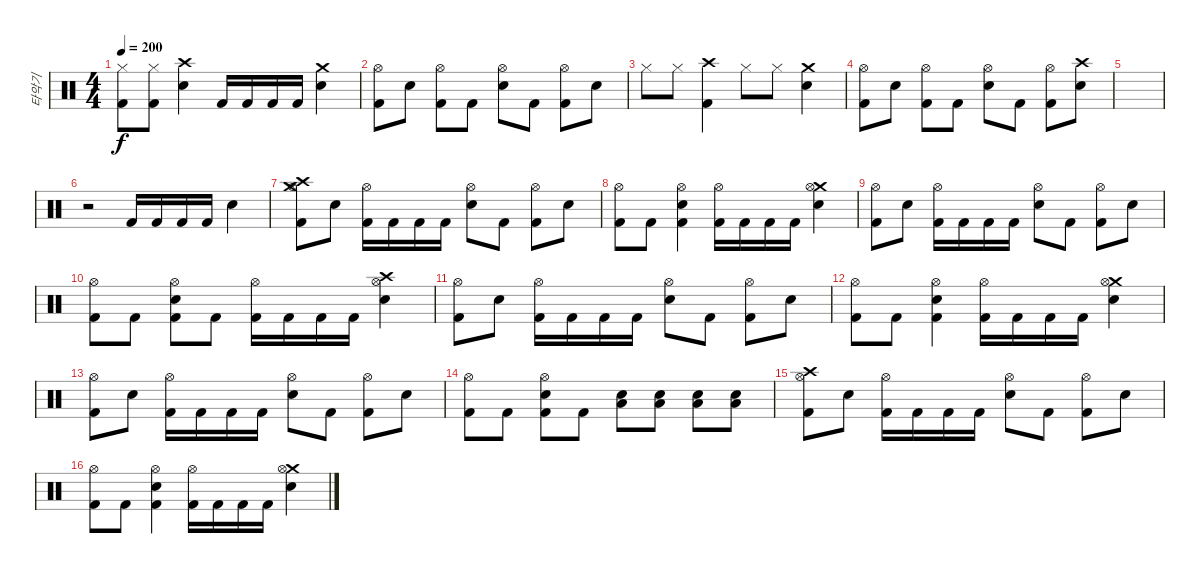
\track ("타악기" "타악기") {instrument percussion}
\staff {score}
\articulation defaults
\ts (4 4)
\tempo 200
\clef neutral
\ks c
("Hi-Hat (closed)" "Kick (hit) 2").8{dy f} ("Hi-Hat (closed)" "Kick (hit) 2").8 ("Crash high (hit)" "Snare (hit) 2").4 "Kick (hit) 2".16 "Kick (hit) 2".16 "Kick (hit) 2".16 "Kick (hit) 2".16 ("Crash medium (hit)" "Snare (hit) 2").4 |
("Hi-Hat (open)" "Kick (hit) 2").8 "Snare (hit) 2".8 ("Hi-Hat (open)" "Kick (hit) 2").8 "Kick (hit) 2".8 ("Hi-Hat (open)" "Snare (hit) 2").8 "Kick (hit) 2".8 ("Hi-Hat (open)" "Kick (hit) 2").8 "Snare (hit) 2".8 |
"Hi-Hat (closed)".8 "Hi-Hat (closed)".8 ("Crash high (hit)" "Kick (hit) 2").4 "Hi-Hat (closed)".8 "Hi-Hat (closed)".8 ("Crash medium (hit)" "Snare (hit) 2").4 |
("Hi-Hat (open)" "Kick (hit) 2").8 "Snare (hit) 2".8 ("Hi-Hat (open)" "Kick (hit) 2").8 "Kick (hit) 2".8 ("Hi-Hat (open)" "Snare (hit) 2").8 "Kick (hit) 2".8 ("Hi-Hat (open)" "Kick (hit) 2").8 ("Crash high (hit)" "Snare (hit) 2").8 |
|
r.2 "Kick (hit) 2".16 "Kick (hit) 2".16 "Kick (hit) 2".16 "Kick (hit) 2".16 "Snare (hit) 2".4 |
("Crash high (hit)" "Crash medium (hit)" "Hi-Hat (open)" "Kick (hit) 2").8 "Snare (hit) 2".8 ("Hi-Hat (open)" "Kick (hit) 2").16 "Kick (hit) 2".16 "Kick (hit) 2".16 "Kick (hit) 2".16 ("Hi-Hat (open)" "Snare (hit) 2").8 "Kick (hit) 2".8 ("Hi-Hat (open)" "Kick (hit) 2").8 "Snare (hit) 2".8 |
("Hi-Hat (open)" "Kick (hit) 2").8 "Kick (hit) 2".8 ("Hi-Hat (open)" "Snare (hit) 2" "Kick (hit) 2").4 ("Hi-Hat (open)" "Kick (hit) 2").16 "Kick (hit) 2".16 "Kick (hit) 2".16 "Kick (hit) 2".16 ("Crash medium (hit)" "Hi-Hat (open)" "Snare (hit) 2").4 |
("Hi-Hat (open)" "Kick (hit) 2").8 "Snare (hit) 2".8 ("Hi-Hat (open)" "Kick (hit) 2").16 "Kick (hit) 2".16 "Kick (hit) 2".16 "Kick (hit) 2".16 ("Hi-Hat (open)" "Snare (hit) 2").8 "Kick (hit) 2".8 ("Hi-Hat (open)" "Kick (hit) 2").8 "Snare (hit) 2".8 |
("Hi-Hat (open)" "Kick (hit) 2").8 "Kick (hit) 2".8 ("Hi-Hat (open)" "Snare (hit) 2" "Kick (hit) 2").8 "Kick (hit) 2".8 ("Hi-Hat (open)" "Kick (hit) 2").16 "Kick (hit) 2".16 "Kick (hit) 2".16 "Kick (hit) 2".16 ("Crash high (hit)" "Hi-Hat (open)" "Snare (hit) 2").4 |
("Hi-Hat (open)" "Kick (hit) 2").8 "Snare (hit) 2".8 ("Hi-Hat (open)" "Kick (hit) 2").16 "Kick (hit) 2".16 "Kick (hit) 2".16 "Kick (hit) 2".16 ("Hi-Hat (open)" "Snare (hit) 2").8 "Kick (hit) 2".8 ("Hi-Hat (open)" "Kick (hit) 2").8 "Snare (hit) 2".8 |
("Hi-Hat (open)" "Kick (hit) 2").8 "Kick (hit) 2".8 ("Hi-Hat (open)" "Snare (hit) 2" "Kick (hit) 2").4 ("Hi-Hat (open)" "Kick (hit) 2").16 "Kick (hit) 2".16 "Kick (hit) 2".16 "Kick (hit) 2".16 ("Crash medium (hit)" "Hi-Hat (open)" "Snare (hit) 2").4 |
("Hi-Hat (open)" "Kick (hit) 2").8 "Snare (hit) 2".8 ("Hi-Hat (open)" "Kick (hit) 2").16 "Kick (hit) 2".16 "Kick (hit) 2".16 "Kick (hit) 2".16 ("Hi-Hat (open)" "Snare (hit) 2").8 "Kick (hit) 2".8 ("Hi-Hat (open)" "Kick (hit) 2").8 "Snare (hit) 2".8 |
("Hi-Hat (open)" "Kick (hit) 2").8 "Kick (hit) 2".8 ("Hi-Hat (open)" "Snare (hit) 2" "Kick (hit) 2").8 "Kick (hit) 2".8 ("Low Tom (hit)" "Snare (hit) 2").8 ("Low Tom (hit)" "Snare (hit) 2").8 ("Low Tom (hit)" "Snare (hit) 2").8 ("Low Tom (hit)" "Snare (hit) 2").8 |
("Crash high (hit)" "Hi-Hat (open)" "Kick (hit) 2").8 "Snare (hit) 2".8 ("Hi-Hat (open)" "Kick (hit) 2").16 "Kick (hit) 2".16 "Kick (hit) 2".16 "Kick (hit) 2".16 ("Hi-Hat (open)" "Snare (hit) 2").8 "Kick (hit) 2".8 ("Hi-Hat (open)" "Kick (hit) 2").8 "Snare (hit) 2".8 |
("Hi-Hat (open)" "Kick (hit) 2").8 "Kick (hit) 2".8 ("Hi-Hat (open)" "Snare (hit) 2" "Kick (hit) 2").4 ("Hi-Hat (open)" "Kick (hit) 2").16 "Kick (hit) 2".16 "Kick (hit) 2".16 "Kick (hit) 2".16 ("Crash medium (hit)" "Hi-Hat (open)" "Snare (hit) 2").4
